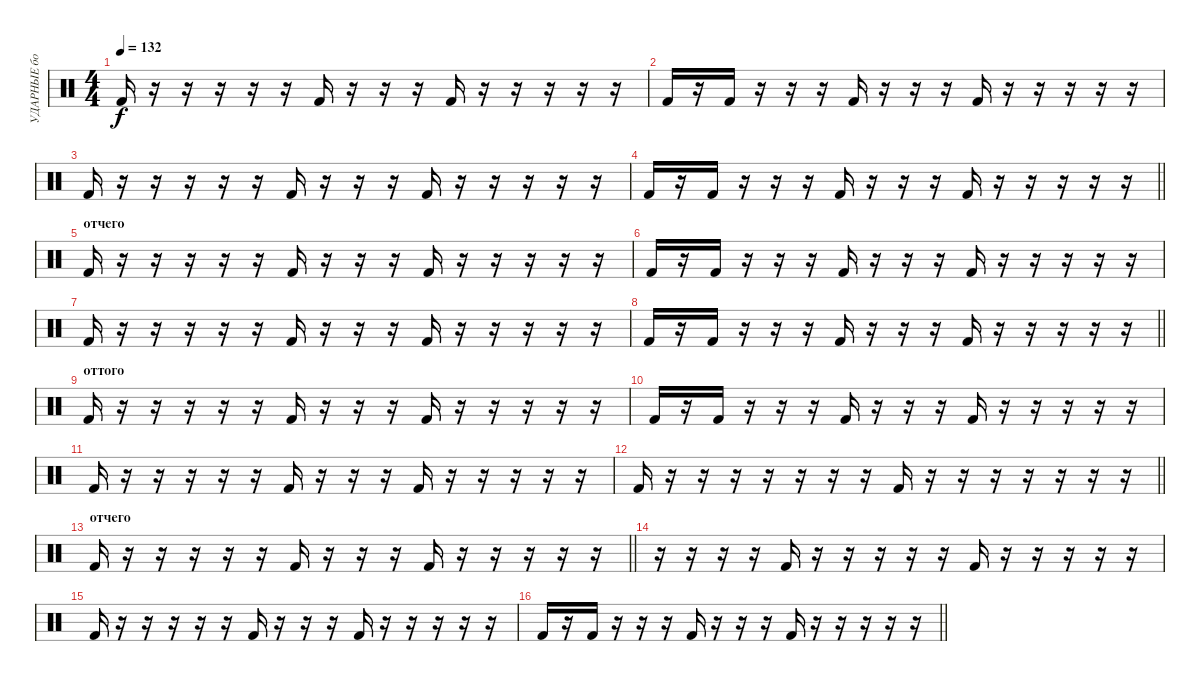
\track ("УДАРНЫЕ бочка" "УДАРНЫЕ бо") {instrument percussion}
\staff {score}
\articulation defaults
\ts (4 4)
\tempo 132
\clef neutral
\ks c "Kick (hit) 2".16{dy f}
r.16 r.16 r.16 r.16 r.16 "Kick (hit) 2".16 r.16 r.16 r.16 "Kick (hit) 2".16 r.16 r.16 r.16 r.16 r.16 |
"Kick (hit) 2".16 r.16 "Kick (hit) 2".16 r.16 r.16 r.16 "Kick (hit) 2".16 r.16 r.16 r.16 "Kick (hit) 2".16 r.16 r.16 r.16 r.16 r.16 |
"Kick (hit) 2".16 r.16 r.16 r.16 r.16 r.16 "Kick (hit) 2".16 r.16 r.16 r.16 "Kick (hit) 2".16 r.16 r.16 r.16 r.16 r.16 |
\barLineRight lightlight "Kick (hit) 2".16
r.16 "Kick (hit) 2".16 r.16 r.16 r.16 "Kick (hit) 2".16 r.16 r.16 r.16 "Kick (hit) 2".16 r.16 r.16 r.16 r.16 r.16 |
\section ("" "отчего")
"Kick (hit) 2".16 r.16 r.16 r.16 r.16 r.16 "Kick (hit) 2".16 r.16 r.16 r.16 "Kick (hit) 2".16 r.16 r.16 r.16 r.16 r.16 |
"Kick (hit) 2".16 r.16 "Kick (hit) 2".16 r.16 r.16 r.16 "Kick (hit) 2".16 r.16 r.16 r.16 "Kick (hit) 2".16 r.16 r.16 r.16 r.16 r.16 |
"Kick (hit) 2".16 r.16 r.16 r.16 r.16 r.16 "Kick (hit) 2".16 r.16 r.16 r.16 "Kick (hit) 2".16 r.16 r.16 r.16 r.16 r.16 |
\barLineRight lightlight "Kick (hit) 2".16
r.16 "Kick (hit) 2".16 r.16 r.16 r.16 "Kick (hit) 2".16 r.16 r.16 r.16 "Kick (hit) 2".16 r.16 r.16 r.16 r.16 r.16 |
\section ("" "оттого")
"Kick (hit) 2".16 r.16 r.16 r.16 r.16 r.16 "Kick (hit) 2".16 r.16 r.16 r.16 "Kick (hit) 2".16 r.16 r.16 r.16 r.16 r.16 |
"Kick (hit) 2".16 r.16 "Kick (hit) 2".16 r.16 r.16 r.16 "Kick (hit) 2".16 r.16 r.16 r.16 "Kick (hit) 2".16 r.16 r.16 r.16 r.16 r.16 |
"Kick (hit) 2".16 r.16 r.16 r.16 r.16 r.16 "Kick (hit) 2".16 r.16 r.16 r.16 "Kick (hit) 2".16 r.16 r.16 r.16 r.16 r.16 |
\barLineRight lightlight "Kick (hit) 2".16
r.16 r.16 r.16 r.16 r.16 r.16 r.16 "Kick (hit) 2".16 r.16 r.16 r.16 r.16 r.16 r.16 r.16 |
\section ("" "отчего")
\barLineRight lightlight "Kick (hit) 2".16
r.16 r.16 r.16 r.16 r.16 "Kick (hit) 2".16 r.16 r.16 r.16 "Kick (hit) 2".16 r.16 r.16 r.16 r.16 r.16 |
r.16 r.16 r.16 r.16 "Kick (hit) 2".16 r.16 r.16 r.16 r.16 r.16 "Kick (hit) 2".16 r.16 r.16 r.16 r.16 r.16 |
"Kick (hit) 2".16 r.16 r.16 r.16 r.16 r.16 "Kick (hit) 2".16 r.16 r.16 r.16 "Kick (hit) 2".16 r.16 r.16 r.16 r.16 r.16 |
\barLineRight lightlight "Kick (hit) 2".16
r.16 "Kick (hit) 2".16 r.16 r.16 r.16 "Kick (hit) 2".16 r.16 r.16 r.16 "Kick (hit) 2".16 r.16 r.16 r.16 r.16 r.16
